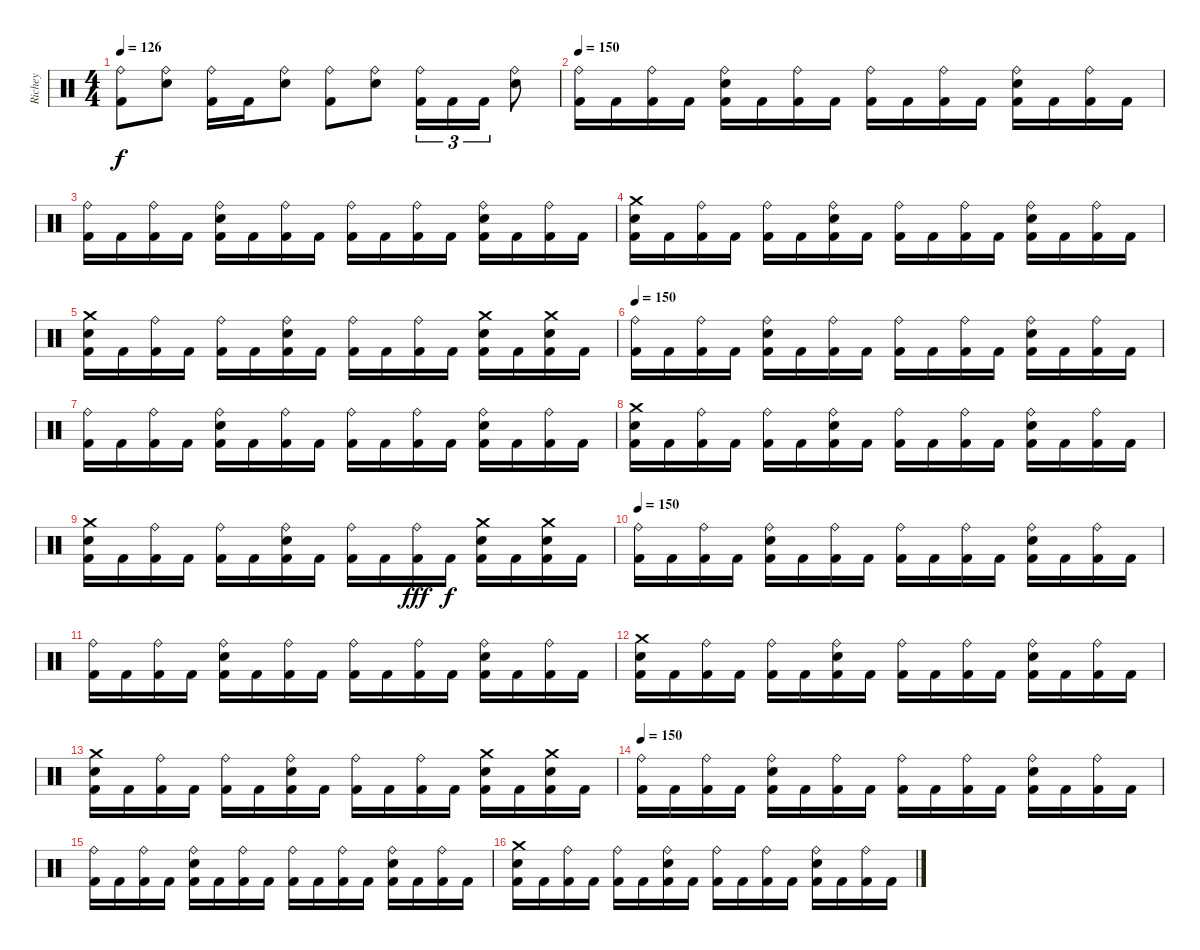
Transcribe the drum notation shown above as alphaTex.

\track ("Richey" "Richey") {instrument percussion}
\staff {score}
\articulation defaults
\ts (4 4)
\tempo 126
\clef neutral
\ks c
("Ride (bell)" "Kick (hit) 2").8{dy f} ("Ride (bell)" "Snare (hit) 2").8 ("Ride (bell)" "Kick (hit) 2").16 "Kick (hit) 2".16 ("Ride (bell)" "Snare (hit) 2").8 ("Ride (bell)" "Kick (hit) 2").8 ("Ride (bell)" "Snare (hit) 2").8 ("Ride (bell)" "Kick (hit) 2").16{tu (3 2)} "Kick (hit) 2".16{tu (3 2)} "Kick (hit) 2".16{tu (3 2)} ("Ride (bell)" "Snare (hit) 2").8 |
\tempo 150
("Ride (bell)" "Kick (hit) 2").16 "Kick (hit) 2".16 ("Ride (bell)" "Kick (hit) 2").16 "Kick (hit) 2".16 ("Ride (bell)" "Snare (hit) 2" "Kick (hit) 2").16 "Kick (hit) 2".16 ("Ride (bell)" "Kick (hit) 2").16 "Kick (hit) 2".16 ("Ride (bell)" "Kick (hit) 2").16 "Kick (hit) 2".16 ("Ride (bell)" "Kick (hit) 2").16 "Kick (hit) 2".16 ("Ride (bell)" "Snare (hit) 2" "Kick (hit) 2").16 "Kick (hit) 2".16 ("Ride (bell)" "Kick (hit) 2").16 "Kick (hit) 2".16 |
("Ride (bell)" "Kick (hit) 2").16 "Kick (hit) 2".16 ("Ride (bell)" "Kick (hit) 2").16 "Kick (hit) 2".16 ("Ride (bell)" "Snare (hit) 2" "Kick (hit) 2").16 "Kick (hit) 2".16 ("Ride (bell)" "Kick (hit) 2").16 "Kick (hit) 2".16 ("Ride (bell)" "Kick (hit) 2").16 "Kick (hit) 2".16 ("Ride (bell)" "Kick (hit) 2").16 "Kick (hit) 2".16 ("Ride (bell)" "Snare (hit) 2" "Kick (hit) 2").16 "Kick (hit) 2".16 ("Ride (bell)" "Kick (hit) 2").16 "Kick (hit) 2".16 |
("Crash medium (hit)" "Snare (hit) 2" "Kick (hit) 2").16 "Kick (hit) 2".16 ("Ride (bell)" "Kick (hit) 2").16 "Kick (hit) 2".16 ("Ride (bell)" "Kick (hit) 2").16 "Kick (hit) 2".16 ("Ride (bell)" "Snare (hit) 2" "Kick (hit) 2").16 "Kick (hit) 2".16 ("Ride (bell)" "Kick (hit) 2").16 "Kick (hit) 2".16 ("Ride (bell)" "Kick (hit) 2").16 "Kick (hit) 2".16 ("Ride (bell)" "Snare (hit) 2" "Kick (hit) 2").16 "Kick (hit) 2".16 ("Ride (bell)" "Kick (hit) 2").16 "Kick (hit) 2".16 |
("Crash medium (hit)" "Snare (hit) 2" "Kick (hit) 2").16 "Kick (hit) 2".16 ("Ride (bell)" "Kick (hit) 2").16 "Kick (hit) 2".16 ("Ride (bell)" "Kick (hit) 2").16 "Kick (hit) 2".16 ("Ride (bell)" "Snare (hit) 2" "Kick (hit) 2").16 "Kick (hit) 2".16 ("Ride (bell)" "Kick (hit) 2").16 "Kick (hit) 2".16 ("Ride (bell)" "Kick (hit) 2").16 "Kick (hit) 2".16 ("Crash medium (hit)" "Snare (hit) 2" "Kick (hit) 2").16 "Kick (hit) 2".16 ("Crash medium (hit)" "Snare (hit) 2" "Kick (hit) 2").16 "Kick (hit) 2".16 |
\tempo 150
("Ride (bell)" "Kick (hit) 2").16 "Kick (hit) 2".16 ("Ride (bell)" "Kick (hit) 2").16 "Kick (hit) 2".16 ("Ride (bell)" "Snare (hit) 2" "Kick (hit) 2").16 "Kick (hit) 2".16 ("Ride (bell)" "Kick (hit) 2").16 "Kick (hit) 2".16 ("Ride (bell)" "Kick (hit) 2").16 "Kick (hit) 2".16 ("Ride (bell)" "Kick (hit) 2").16 "Kick (hit) 2".16 ("Ride (bell)" "Snare (hit) 2" "Kick (hit) 2").16 "Kick (hit) 2".16 ("Ride (bell)" "Kick (hit) 2").16 "Kick (hit) 2".16 |
("Ride (bell)" "Kick (hit) 2").16 "Kick (hit) 2".16 ("Ride (bell)" "Kick (hit) 2").16 "Kick (hit) 2".16 ("Ride (bell)" "Snare (hit) 2" "Kick (hit) 2").16 "Kick (hit) 2".16 ("Ride (bell)" "Kick (hit) 2").16 "Kick (hit) 2".16 ("Ride (bell)" "Kick (hit) 2").16 "Kick (hit) 2".16 ("Ride (bell)" "Kick (hit) 2").16 "Kick (hit) 2".16 ("Ride (bell)" "Snare (hit) 2" "Kick (hit) 2").16 "Kick (hit) 2".16 ("Ride (bell)" "Kick (hit) 2").16 "Kick (hit) 2".16 |
("Crash medium (hit)" "Snare (hit) 2" "Kick (hit) 2").16 "Kick (hit) 2".16 ("Ride (bell)" "Kick (hit) 2").16 "Kick (hit) 2".16 ("Ride (bell)" "Kick (hit) 2").16 "Kick (hit) 2".16 ("Ride (bell)" "Snare (hit) 2" "Kick (hit) 2").16 "Kick (hit) 2".16 ("Ride (bell)" "Kick (hit) 2").16 "Kick (hit) 2".16 ("Ride (bell)" "Kick (hit) 2").16 "Kick (hit) 2".16 ("Ride (bell)" "Snare (hit) 2" "Kick (hit) 2").16 "Kick (hit) 2".16 ("Ride (bell)" "Kick (hit) 2").16 "Kick (hit) 2".16 |
("Crash medium (hit)" "Snare (hit) 2" "Kick (hit) 2").16 "Kick (hit) 2".16 ("Ride (bell)" "Kick (hit) 2").16 "Kick (hit) 2".16 ("Ride (bell)" "Kick (hit) 2").16 "Kick (hit) 2".16 ("Ride (bell)" "Snare (hit) 2" "Kick (hit) 2").16 "Kick (hit) 2".16 ("Ride (bell)" "Kick (hit) 2").16 "Kick (hit) 2".16 ("Ride (bell)" "Kick (hit) 2").16{dy fff} "Kick (hit) 2".16{dy f} ("Crash medium (hit)" "Snare (hit) 2" "Kick (hit) 2").16 "Kick (hit) 2".16 ("Crash medium (hit)" "Snare (hit) 2" "Kick (hit) 2").16 "Kick (hit) 2".16 |
\tempo 150
("Ride (bell)" "Kick (hit) 2").16 "Kick (hit) 2".16 ("Ride (bell)" "Kick (hit) 2").16 "Kick (hit) 2".16 ("Ride (bell)" "Snare (hit) 2" "Kick (hit) 2").16 "Kick (hit) 2".16 ("Ride (bell)" "Kick (hit) 2").16 "Kick (hit) 2".16 ("Ride (bell)" "Kick (hit) 2").16 "Kick (hit) 2".16 ("Ride (bell)" "Kick (hit) 2").16 "Kick (hit) 2".16 ("Ride (bell)" "Snare (hit) 2" "Kick (hit) 2").16 "Kick (hit) 2".16 ("Ride (bell)" "Kick (hit) 2").16 "Kick (hit) 2".16 |
("Ride (bell)" "Kick (hit) 2").16 "Kick (hit) 2".16 ("Ride (bell)" "Kick (hit) 2").16 "Kick (hit) 2".16 ("Ride (bell)" "Snare (hit) 2" "Kick (hit) 2").16 "Kick (hit) 2".16 ("Ride (bell)" "Kick (hit) 2").16 "Kick (hit) 2".16 ("Ride (bell)" "Kick (hit) 2").16 "Kick (hit) 2".16 ("Ride (bell)" "Kick (hit) 2").16 "Kick (hit) 2".16 ("Ride (bell)" "Snare (hit) 2" "Kick (hit) 2").16 "Kick (hit) 2".16 ("Ride (bell)" "Kick (hit) 2").16 "Kick (hit) 2".16 |
("Crash medium (hit)" "Snare (hit) 2" "Kick (hit) 2").16 "Kick (hit) 2".16 ("Ride (bell)" "Kick (hit) 2").16 "Kick (hit) 2".16 ("Ride (bell)" "Kick (hit) 2").16 "Kick (hit) 2".16 ("Ride (bell)" "Snare (hit) 2" "Kick (hit) 2").16 "Kick (hit) 2".16 ("Ride (bell)" "Kick (hit) 2").16 "Kick (hit) 2".16 ("Ride (bell)" "Kick (hit) 2").16 "Kick (hit) 2".16 ("Ride (bell)" "Snare (hit) 2" "Kick (hit) 2").16 "Kick (hit) 2".16 ("Ride (bell)" "Kick (hit) 2").16 "Kick (hit) 2".16 |
("Crash medium (hit)" "Snare (hit) 2" "Kick (hit) 2").16 "Kick (hit) 2".16 ("Ride (bell)" "Kick (hit) 2").16 "Kick (hit) 2".16 ("Ride (bell)" "Kick (hit) 2").16 "Kick (hit) 2".16 ("Ride (bell)" "Snare (hit) 2" "Kick (hit) 2").16 "Kick (hit) 2".16 ("Ride (bell)" "Kick (hit) 2").16 "Kick (hit) 2".16 ("Ride (bell)" "Kick (hit) 2").16 "Kick (hit) 2".16 ("Crash medium (hit)" "Snare (hit) 2" "Kick (hit) 2").16 "Kick (hit) 2".16 ("Crash medium (hit)" "Snare (hit) 2" "Kick (hit) 2").16 "Kick (hit) 2".16 |
\tempo 150
("Ride (bell)" "Kick (hit) 2").16 "Kick (hit) 2".16 ("Ride (bell)" "Kick (hit) 2").16 "Kick (hit) 2".16 ("Ride (bell)" "Snare (hit) 2" "Kick (hit) 2").16 "Kick (hit) 2".16 ("Ride (bell)" "Kick (hit) 2").16 "Kick (hit) 2".16 ("Ride (bell)" "Kick (hit) 2").16 "Kick (hit) 2".16 ("Ride (bell)" "Kick (hit) 2").16 "Kick (hit) 2".16 ("Ride (bell)" "Snare (hit) 2" "Kick (hit) 2").16 "Kick (hit) 2".16 ("Ride (bell)" "Kick (hit) 2").16 "Kick (hit) 2".16 |
("Ride (bell)" "Kick (hit) 2").16 "Kick (hit) 2".16 ("Ride (bell)" "Kick (hit) 2").16 "Kick (hit) 2".16 ("Ride (bell)" "Snare (hit) 2" "Kick (hit) 2").16 "Kick (hit) 2".16 ("Ride (bell)" "Kick (hit) 2").16 "Kick (hit) 2".16 ("Ride (bell)" "Kick (hit) 2").16 "Kick (hit) 2".16 ("Ride (bell)" "Kick (hit) 2").16 "Kick (hit) 2".16 ("Ride (bell)" "Snare (hit) 2" "Kick (hit) 2").16 "Kick (hit) 2".16 ("Ride (bell)" "Kick (hit) 2").16 "Kick (hit) 2".16 |
("Crash medium (hit)" "Snare (hit) 2" "Kick (hit) 2").16 "Kick (hit) 2".16 ("Ride (bell)" "Kick (hit) 2").16 "Kick (hit) 2".16 ("Ride (bell)" "Kick (hit) 2").16 "Kick (hit) 2".16 ("Ride (bell)" "Snare (hit) 2" "Kick (hit) 2").16 "Kick (hit) 2".16 ("Ride (bell)" "Kick (hit) 2").16 "Kick (hit) 2".16 ("Ride (bell)" "Kick (hit) 2").16 "Kick (hit) 2".16 ("Ride (bell)" "Snare (hit) 2" "Kick (hit) 2").16 "Kick (hit) 2".16 ("Ride (bell)" "Kick (hit) 2").16 "Kick (hit) 2".16
